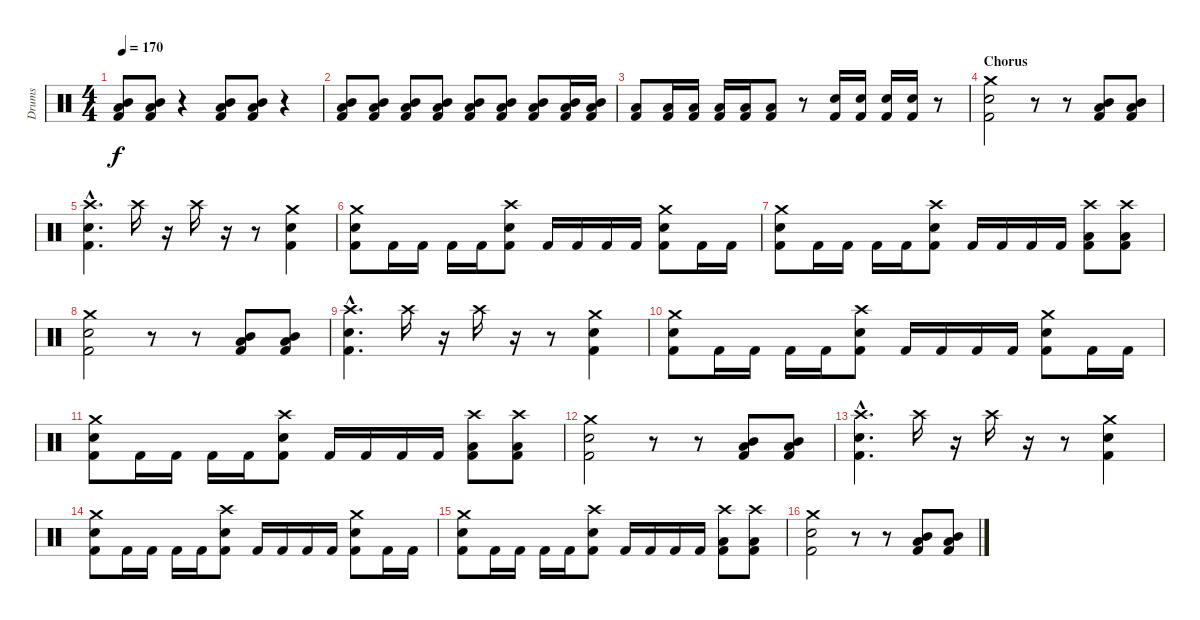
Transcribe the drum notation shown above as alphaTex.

\track ("Drums" "Drums") {instrument percussion}
\staff {score}
\articulation defaults
\ts (4 4)
\tempo 170
\clef neutral
\ks c
("Kick (hit) 2" "Low Tom (hit)" "Mid Tom (hit)").8{dy f} ("Kick (hit) 2" "Low Tom (hit)" "Mid Tom (hit)").8 r.4 ("Kick (hit) 2" "Low Tom (hit)" "Mid Tom (hit)").8 ("Kick (hit) 2" "Low Tom (hit)" "Mid Tom (hit)").8 r.4 |
("Kick (hit) 2" "Low Tom (hit)" "Mid Tom (hit)").8 ("Kick (hit) 2" "Low Tom (hit)" "Mid Tom (hit)").8 ("Kick (hit) 2" "Low Tom (hit)" "Mid Tom (hit)").8 ("Kick (hit) 2" "Low Tom (hit)" "Mid Tom (hit)").8 ("Kick (hit) 2" "Low Tom (hit)" "Mid Tom (hit)").8 ("Kick (hit) 2" "Low Tom (hit)" "Mid Tom (hit)").8 ("Kick (hit) 2" "Low Tom (hit)" "Mid Tom (hit)").8 ("Kick (hit) 2" "Low Tom (hit)" "Mid Tom (hit)").16 ("Kick (hit) 2" "Low Tom (hit)" "Mid Tom (hit)").16 |
("Kick (hit) 2" "Low Tom (hit)").8 ("Kick (hit) 2" "Low Tom (hit)").16 ("Kick (hit) 2" "Low Tom (hit)").16 ("Kick (hit) 2" "Low Tom (hit)").16 ("Kick (hit) 2" "Low Tom (hit)").16 ("Kick (hit) 2" "Low Tom (hit)").8 r.8 ("Kick (hit) 2" "Snare (hit) 2").16 ("Kick (hit) 2" "Snare (hit) 2").16 ("Kick (hit) 2" "Snare (hit) 2").16 ("Kick (hit) 2" "Snare (hit) 2").16 r.8 |
\section ("" "Chorus")
("Kick (hit) 2" "Snare (hit) 2" "Crash medium (hit)").2 r.8 r.8 ("Kick (hit) 2" "Low Tom (hit)" "Mid Tom (hit)").8 ("Kick (hit) 2" "Low Tom (hit)" "Mid Tom (hit)").8 |
("Kick (hit) 2"{hac} "Snare (hit) 2"{hac} "Crash high (hit)"{hac}).4{d} "Crash high (hit)".16 r.16 "Crash high (hit)".16 r.16 r.8 ("Kick (hit) 2" "Snare (hit) 2" "Crash medium (hit)").4 |
("Kick (hit) 2" "Snare (hit) 2" "Crash medium (hit)").8 "Kick (hit) 2".16 "Kick (hit) 2".16 "Kick (hit) 2".16 "Kick (hit) 2".16 ("Kick (hit) 2" "Snare (hit) 2" "Crash high (hit)").8 "Kick (hit) 2".16 "Kick (hit) 2".16 "Kick (hit) 2".16 "Kick (hit) 2".16 ("Kick (hit) 2" "Snare (hit) 2" "Crash medium (hit)").8 "Kick (hit) 2".16 "Kick (hit) 2".16 |
("Kick (hit) 2" "Snare (hit) 2" "Crash medium (hit)").8 "Kick (hit) 2".16 "Kick (hit) 2".16 "Kick (hit) 2".16 "Kick (hit) 2".16 ("Kick (hit) 2" "Snare (hit) 2" "Crash high (hit)").8 "Kick (hit) 2".16 "Kick (hit) 2".16 "Kick (hit) 2".16 "Kick (hit) 2".16 ("Kick (hit) 2" "Low Tom (hit)" "Crash high (hit)").8 ("Kick (hit) 2" "Low Tom (hit)" "Crash high (hit)").8 |
("Kick (hit) 2" "Snare (hit) 2" "Crash medium (hit)").2 r.8 r.8 ("Kick (hit) 2" "Low Tom (hit)" "Mid Tom (hit)").8 ("Kick (hit) 2" "Low Tom (hit)" "Mid Tom (hit)").8 |
("Kick (hit) 2"{hac} "Snare (hit) 2"{hac} "Crash high (hit)"{hac}).4{d} "Crash high (hit)".16 r.16 "Crash high (hit)".16 r.16 r.8 ("Kick (hit) 2" "Snare (hit) 2" "Crash medium (hit)").4 |
("Kick (hit) 2" "Snare (hit) 2" "Crash medium (hit)").8 "Kick (hit) 2".16 "Kick (hit) 2".16 "Kick (hit) 2".16 "Kick (hit) 2".16 ("Kick (hit) 2" "Snare (hit) 2" "Crash high (hit)").8 "Kick (hit) 2".16 "Kick (hit) 2".16 "Kick (hit) 2".16 "Kick (hit) 2".16 ("Kick (hit) 2" "Snare (hit) 2" "Crash medium (hit)").8 "Kick (hit) 2".16 "Kick (hit) 2".16 |
("Kick (hit) 2" "Snare (hit) 2" "Crash medium (hit)").8 "Kick (hit) 2".16 "Kick (hit) 2".16 "Kick (hit) 2".16 "Kick (hit) 2".16 ("Kick (hit) 2" "Snare (hit) 2" "Crash high (hit)").8 "Kick (hit) 2".16 "Kick (hit) 2".16 "Kick (hit) 2".16 "Kick (hit) 2".16 ("Kick (hit) 2" "Low Tom (hit)" "Crash high (hit)").8 ("Kick (hit) 2" "Low Tom (hit)" "Crash high (hit)").8 |
("Kick (hit) 2" "Snare (hit) 2" "Crash medium (hit)").2 r.8 r.8 ("Kick (hit) 2" "Low Tom (hit)" "Mid Tom (hit)").8 ("Kick (hit) 2" "Low Tom (hit)" "Mid Tom (hit)").8 |
("Kick (hit) 2"{hac} "Snare (hit) 2"{hac} "Crash high (hit)"{hac}).4{d} "Crash high (hit)".16 r.16 "Crash high (hit)".16 r.16 r.8 ("Kick (hit) 2" "Snare (hit) 2" "Crash medium (hit)").4 |
("Kick (hit) 2" "Snare (hit) 2" "Crash medium (hit)").8 "Kick (hit) 2".16 "Kick (hit) 2".16 "Kick (hit) 2".16 "Kick (hit) 2".16 ("Kick (hit) 2" "Snare (hit) 2" "Crash high (hit)").8 "Kick (hit) 2".16 "Kick (hit) 2".16 "Kick (hit) 2".16 "Kick (hit) 2".16 ("Kick (hit) 2" "Snare (hit) 2" "Crash medium (hit)").8 "Kick (hit) 2".16 "Kick (hit) 2".16 |
("Kick (hit) 2" "Snare (hit) 2" "Crash medium (hit)").8 "Kick (hit) 2".16 "Kick (hit) 2".16 "Kick (hit) 2".16 "Kick (hit) 2".16 ("Kick (hit) 2" "Snare (hit) 2" "Crash high (hit)").8 "Kick (hit) 2".16 "Kick (hit) 2".16 "Kick (hit) 2".16 "Kick (hit) 2".16 ("Kick (hit) 2" "Low Tom (hit)" "Crash high (hit)").8 ("Kick (hit) 2" "Low Tom (hit)" "Crash high (hit)").8 |
("Kick (hit) 2" "Snare (hit) 2" "Crash medium (hit)").2 r.8 r.8 ("Kick (hit) 2" "Low Tom (hit)" "Mid Tom (hit)").8 ("Kick (hit) 2" "Low Tom (hit)" "Mid Tom (hit)").8
